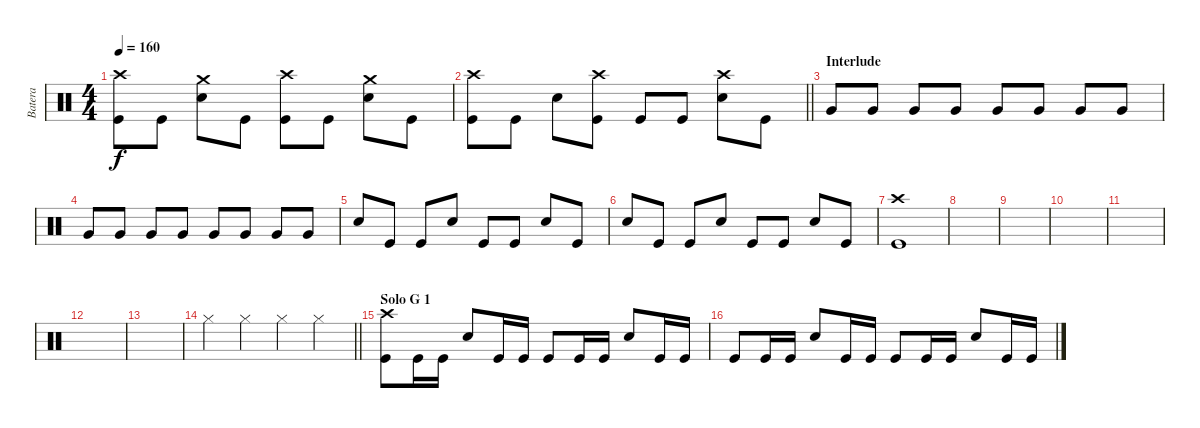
\track ("Batera" "Batera") {instrument percussion}
\staff {score}
\articulation defaults
\ts (4 4)
\tempo 160
\clef neutral
\ks c
("Kick (hit)" "Crash high (hit)").8{dy f} "Kick (hit)".8 ("Snare (hit) 2" "Crash medium (hit)").8 "Kick (hit)".8 ("Kick (hit)" "Crash high (hit)").8 "Kick (hit)".8 ("Snare (hit) 2" "Crash medium (hit)").8 "Kick (hit)".8 |
\barLineRight lightlight
("Kick (hit)" "Crash high (hit)").8 "Kick (hit)".8 "Snare (hit) 2".8 ("Kick (hit)" "Crash high (hit)").8 "Kick (hit)".8 "Kick (hit)".8 ("Snare (hit) 2" "Crash high (hit)").8 "Kick (hit)".8 |
\section ("" "Interlude")
"Very Low Tom (hit)".8 "Very Low Tom (hit)".8 "Very Low Tom (hit)".8 "Very Low Tom (hit)".8 "Very Low Tom (hit)".8 "Very Low Tom (hit)".8 "Very Low Tom (hit)".8 "Very Low Tom (hit)".8 |
"Very Low Tom (hit)".8 "Very Low Tom (hit)".8 "Very Low Tom (hit)".8 "Very Low Tom (hit)".8 "Very Low Tom (hit)".8 "Very Low Tom (hit)".8 "Very Low Tom (hit)".8 "Very Low Tom (hit)".8 |
"Snare (hit) 2".8 "Kick (hit)".8 "Kick (hit)".8 "Snare (hit) 2".8 "Kick (hit)".8 "Kick (hit)".8 "Snare (hit) 2".8 "Kick (hit)".8 |
"Snare (hit) 2".8 "Kick (hit)".8 "Kick (hit)".8 "Snare (hit) 2".8 "Kick (hit)".8 "Kick (hit)".8 "Snare (hit) 2".8 "Kick (hit)".8 |
("Crash high (hit)" "Kick (hit)").1 |
|
|
|
|
|
|
\barLineRight lightlight "Hi-Hat (closed)".4 "Hi-Hat (closed)".4 "Hi-Hat (closed)".4 "Hi-Hat (closed)".4
|
\section ("" "Solo G 1")
("Kick (hit)" "Crash high (hit)").8 "Kick (hit)".16 "Kick (hit)".16 "Snare (hit) 2".8 "Kick (hit)".16 "Kick (hit)".16 "Kick (hit)".8 "Kick (hit)".16 "Kick (hit)".16 "Snare (hit) 2".8 "Kick (hit)".16 "Kick (hit)".16 |
"Kick (hit)".8 "Kick (hit)".16 "Kick (hit)".16 "Snare (hit) 2".8 "Kick (hit)".16 "Kick (hit)".16 "Kick (hit)".8 "Kick (hit)".16 "Kick (hit)".16 "Snare (hit) 2".8 "Kick (hit)".16 "Kick (hit)".16
